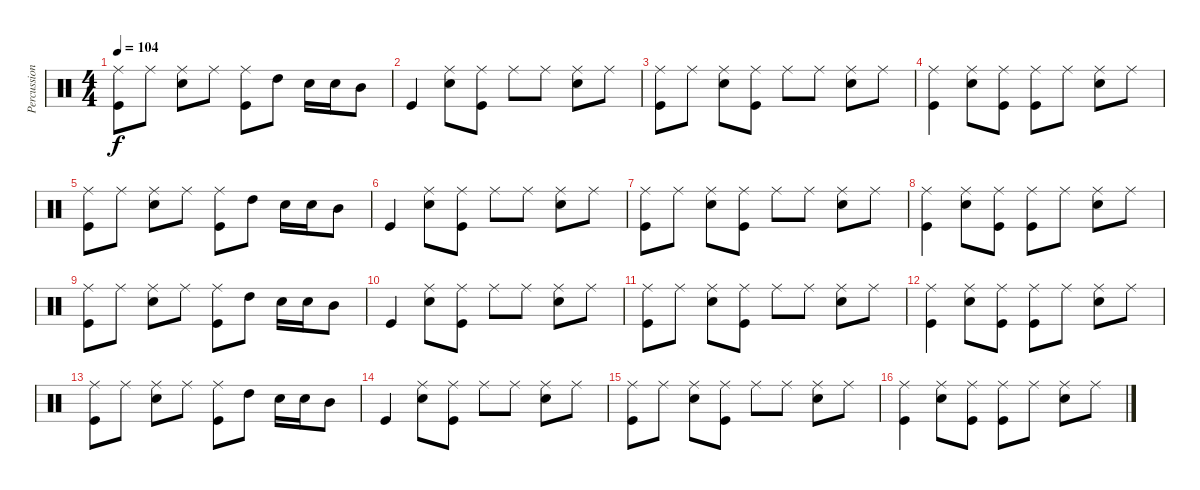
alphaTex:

\track ("Percussion" "Percussion") {instrument percussion}
\staff {score}
\articulation defaults
\ts (4 4)
\tempo 104
\clef neutral
\ks c
("Ride (middle)" "Kick (hit)").8{dy f} "Ride (middle)".8 ("Ride (middle)" "Snare (hit) 2").8 "Ride (middle)".8 ("Ride (middle)" "Kick (hit)").8 "High Tom (hit)".8 "Snare (hit) 2".16 "Snare (hit) 2".16 "Mid Tom (hit)".8 |
"Kick (hit)".4 ("Ride (middle)" "Snare (hit) 2").8 ("Ride (middle)" "Kick (hit)").8 "Ride (middle)".8 "Ride (middle)".8 ("Ride (middle)" "Snare (hit) 2").8 "Ride (middle)".8 |
("Ride (middle)" "Kick (hit)").8 "Ride (middle)".8 ("Ride (middle)" "Snare (hit) 2").8 ("Ride (middle)" "Kick (hit)").8 "Ride (middle)".8 "Ride (middle)".8 ("Ride (middle)" "Snare (hit) 2").8 "Ride (middle)".8 |
("Ride (middle)" "Kick (hit)").4 ("Ride (middle)" "Snare (hit) 2").8 ("Ride (middle)" "Kick (hit)").8 ("Ride (middle)" "Kick (hit)").8 "Ride (middle)".8 ("Ride (middle)" "Snare (hit) 2").8 "Ride (middle)".8 |
("Ride (middle)" "Kick (hit)").8 "Ride (middle)".8 ("Ride (middle)" "Snare (hit) 2").8 "Ride (middle)".8 ("Ride (middle)" "Kick (hit)").8 "High Tom (hit)".8 "Snare (hit) 2".16 "Snare (hit) 2".16 "Mid Tom (hit)".8 |
"Kick (hit)".4 ("Ride (middle)" "Snare (hit) 2").8 ("Ride (middle)" "Kick (hit)").8 "Ride (middle)".8 "Ride (middle)".8 ("Ride (middle)" "Snare (hit) 2").8 "Ride (middle)".8 |
("Ride (middle)" "Kick (hit)").8 "Ride (middle)".8 ("Ride (middle)" "Snare (hit) 2").8 ("Ride (middle)" "Kick (hit)").8 "Ride (middle)".8 "Ride (middle)".8 ("Ride (middle)" "Snare (hit) 2").8 "Ride (middle)".8 |
("Ride (middle)" "Kick (hit)").4 ("Ride (middle)" "Snare (hit) 2").8 ("Ride (middle)" "Kick (hit)").8 ("Ride (middle)" "Kick (hit)").8 "Ride (middle)".8 ("Ride (middle)" "Snare (hit) 2").8 "Ride (middle)".8 |
("Ride (middle)" "Kick (hit)").8 "Ride (middle)".8 ("Ride (middle)" "Snare (hit) 2").8 "Ride (middle)".8 ("Ride (middle)" "Kick (hit)").8 "High Tom (hit)".8 "Snare (hit) 2".16 "Snare (hit) 2".16 "Mid Tom (hit)".8 |
"Kick (hit)".4 ("Ride (middle)" "Snare (hit) 2").8 ("Ride (middle)" "Kick (hit)").8 "Ride (middle)".8 "Ride (middle)".8 ("Ride (middle)" "Snare (hit) 2").8 "Ride (middle)".8 |
("Ride (middle)" "Kick (hit)").8 "Ride (middle)".8 ("Ride (middle)" "Snare (hit) 2").8 ("Ride (middle)" "Kick (hit)").8 "Ride (middle)".8 "Ride (middle)".8 ("Ride (middle)" "Snare (hit) 2").8 "Ride (middle)".8 |
("Ride (middle)" "Kick (hit)").4 ("Ride (middle)" "Snare (hit) 2").8 ("Ride (middle)" "Kick (hit)").8 ("Ride (middle)" "Kick (hit)").8 "Ride (middle)".8 ("Ride (middle)" "Snare (hit) 2").8 "Ride (middle)".8 |
("Ride (middle)" "Kick (hit)").8 "Ride (middle)".8 ("Ride (middle)" "Snare (hit) 2").8 "Ride (middle)".8 ("Ride (middle)" "Kick (hit)").8 "High Tom (hit)".8 "Snare (hit) 2".16 "Snare (hit) 2".16 "Mid Tom (hit)".8 |
"Kick (hit)".4 ("Ride (middle)" "Snare (hit) 2").8 ("Ride (middle)" "Kick (hit)").8 "Ride (middle)".8 "Ride (middle)".8 ("Ride (middle)" "Snare (hit) 2").8 "Ride (middle)".8 |
("Ride (middle)" "Kick (hit)").8 "Ride (middle)".8 ("Ride (middle)" "Snare (hit) 2").8 ("Ride (middle)" "Kick (hit)").8 "Ride (middle)".8 "Ride (middle)".8 ("Ride (middle)" "Snare (hit) 2").8 "Ride (middle)".8 |
("Ride (middle)" "Kick (hit)").4 ("Ride (middle)" "Snare (hit) 2").8 ("Ride (middle)" "Kick (hit)").8 ("Ride (middle)" "Kick (hit)").8 "Ride (middle)".8 ("Ride (middle)" "Snare (hit) 2").8 "Ride (middle)".8
